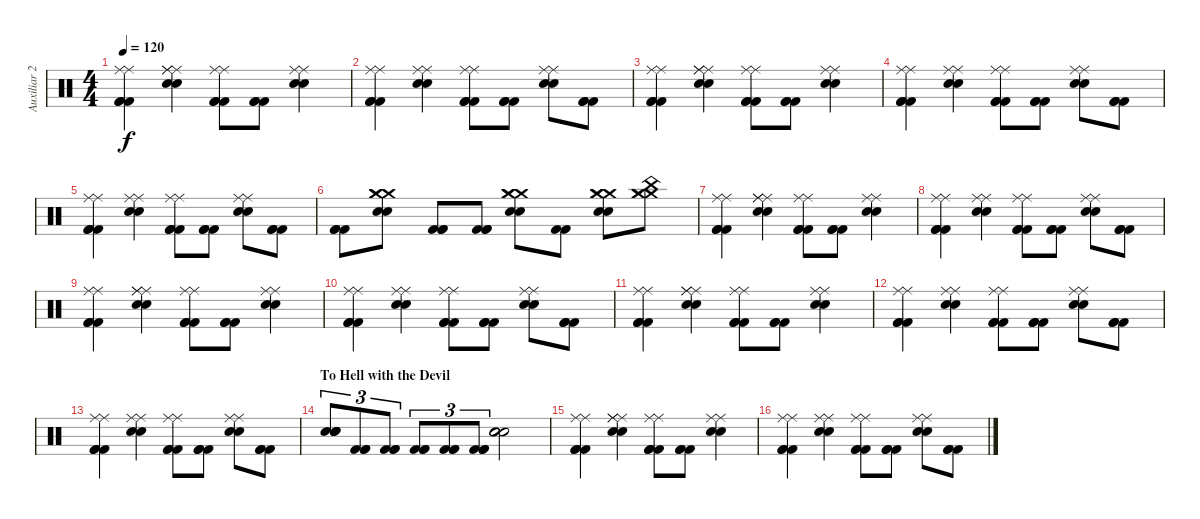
\track ("Auxiliar 2" "Auxiliar 2") {instrument percussion}
\staff {score}
\articulation defaults
\ts (4 4)
\tempo 120
\clef neutral
\ks c
("Kick (hit) 2" "Kick (hit) 2" "Kick (hit) 2" "Ride (middle)" "Ride (middle)").4{dy f} ("Snare (hit) 2" "Snare (hit) 2" "Ride (middle)" "Ride (middle)" "Ride (middle)").4 ("Kick (hit) 2" "Kick (hit) 2" "Kick (hit) 2" "Ride (middle)" "Ride (middle)").8 ("Kick (hit) 2" "Kick (hit) 2" "Kick (hit) 2").8 ("Snare (hit) 2" "Snare (hit) 2" "Ride (middle)" "Ride (middle)").4 |
("Kick (hit) 2" "Kick (hit) 2" "Kick (hit) 2" "Ride (middle)" "Ride (middle)").4 ("Snare (hit) 2" "Snare (hit) 2" "Ride (middle)" "Ride (middle)").4 ("Kick (hit) 2" "Kick (hit) 2" "Kick (hit) 2" "Ride (middle)" "Ride (middle)").8 ("Kick (hit) 2" "Kick (hit) 2" "Kick (hit) 2").8 ("Snare (hit) 2" "Snare (hit) 2" "Ride (middle)" "Ride (middle)").8 ("Kick (hit) 2" "Kick (hit) 2" "Kick (hit) 2").8 |
("Kick (hit) 2" "Kick (hit) 2" "Kick (hit) 2" "Ride (middle)" "Ride (middle)").4 ("Snare (hit) 2" "Snare (hit) 2" "Ride (middle)" "Ride (middle)" "Ride (middle)").4 ("Kick (hit) 2" "Kick (hit) 2" "Kick (hit) 2" "Ride (middle)" "Ride (middle)").8 ("Kick (hit) 2" "Kick (hit) 2" "Kick (hit) 2").8 ("Snare (hit) 2" "Snare (hit) 2" "Ride (middle)" "Ride (middle)").4 |
("Kick (hit) 2" "Kick (hit) 2" "Kick (hit) 2" "Ride (middle)" "Ride (middle)").4 ("Snare (hit) 2" "Snare (hit) 2" "Ride (middle)" "Ride (middle)").4 ("Kick (hit) 2" "Kick (hit) 2" "Kick (hit) 2" "Ride (middle)" "Ride (middle)").8 ("Kick (hit) 2" "Kick (hit) 2" "Kick (hit) 2").8 ("Snare (hit) 2" "Snare (hit) 2" "Ride (middle)" "Ride (middle)").8 ("Kick (hit) 2" "Kick (hit) 2" "Kick (hit) 2").8 |
("Kick (hit) 2" "Kick (hit) 2" "Kick (hit) 2" "Ride (middle)" "Ride (middle)").4 ("Snare (hit) 2" "Snare (hit) 2" "Ride (middle)" "Ride (middle)").4 ("Kick (hit) 2" "Kick (hit) 2" "Kick (hit) 2" "Ride (middle)" "Ride (middle)").8 ("Kick (hit) 2" "Kick (hit) 2" "Kick (hit) 2").8 ("Snare (hit) 2" "Snare (hit) 2" "Ride (middle)" "Ride (middle)").8 ("Kick (hit) 2" "Kick (hit) 2" "Kick (hit) 2").8 |
("Kick (hit) 2" "Kick (hit) 2" "Kick (hit) 2").8 ("Snare (hit) 2" "Snare (hit) 2" "Crash medium (hit)" "Crash medium (hit)" "Crash medium (hit)").8 ("Kick (hit) 2" "Kick (hit) 2" "Kick (hit) 2").8 ("Kick (hit) 2" "Kick (hit) 2" "Kick (hit) 2").8 ("Snare (hit) 2" "Snare (hit) 2" "Crash medium (hit)" "Crash medium (hit)" "Crash medium (hit)").8 ("Kick (hit) 2" "Kick (hit) 2").8 ("Snare (hit) 2" "Snare (hit) 2" "Crash medium (hit)" "Crash medium (hit)" "Crash medium (hit)").8 ("Crash medium (hit)" "Crash medium (hit)" "Crash medium (hit)" "China (hit)").8 |
("Kick (hit) 2" "Kick (hit) 2" "Kick (hit) 2" "Ride (middle)" "Ride (middle)").4 ("Snare (hit) 2" "Snare (hit) 2" "Ride (middle)" "Ride (middle)" "Ride (middle)").4 ("Kick (hit) 2" "Kick (hit) 2" "Kick (hit) 2" "Ride (middle)" "Ride (middle)").8 ("Kick (hit) 2" "Kick (hit) 2" "Kick (hit) 2").8 ("Snare (hit) 2" "Snare (hit) 2" "Ride (middle)" "Ride (middle)").4 |
("Kick (hit) 2" "Kick (hit) 2" "Kick (hit) 2" "Ride (middle)" "Ride (middle)").4 ("Snare (hit) 2" "Snare (hit) 2" "Ride (middle)" "Ride (middle)").4 ("Kick (hit) 2" "Kick (hit) 2" "Kick (hit) 2" "Ride (middle)" "Ride (middle)").8 ("Kick (hit) 2" "Kick (hit) 2" "Kick (hit) 2").8 ("Snare (hit) 2" "Snare (hit) 2" "Ride (middle)" "Ride (middle)").8 ("Kick (hit) 2" "Kick (hit) 2" "Kick (hit) 2").8 |
("Kick (hit) 2" "Kick (hit) 2" "Kick (hit) 2" "Ride (middle)" "Ride (middle)").4 ("Snare (hit) 2" "Snare (hit) 2" "Ride (middle)" "Ride (middle)" "Ride (middle)").4 ("Kick (hit) 2" "Kick (hit) 2" "Kick (hit) 2" "Ride (middle)" "Ride (middle)").8 ("Kick (hit) 2" "Kick (hit) 2" "Kick (hit) 2").8 ("Snare (hit) 2" "Snare (hit) 2" "Ride (middle)" "Ride (middle)").4 |
("Kick (hit) 2" "Kick (hit) 2" "Kick (hit) 2" "Ride (middle)" "Ride (middle)").4 ("Snare (hit) 2" "Snare (hit) 2" "Ride (middle)" "Ride (middle)").4 ("Kick (hit) 2" "Kick (hit) 2" "Kick (hit) 2" "Ride (middle)" "Ride (middle)").8 ("Kick (hit) 2" "Kick (hit) 2" "Kick (hit) 2").8 ("Snare (hit) 2" "Snare (hit) 2" "Ride (middle)" "Ride (middle)").8 ("Kick (hit) 2" "Kick (hit) 2" "Kick (hit) 2").8 |
("Kick (hit) 2" "Kick (hit) 2" "Kick (hit) 2" "Ride (middle)" "Ride (middle)").4 ("Snare (hit) 2" "Snare (hit) 2" "Ride (middle)" "Ride (middle)" "Ride (middle)").4 ("Kick (hit) 2" "Kick (hit) 2" "Kick (hit) 2" "Ride (middle)" "Ride (middle)").8 ("Kick (hit) 2" "Kick (hit) 2" "Kick (hit) 2").8 ("Snare (hit) 2" "Snare (hit) 2" "Ride (middle)" "Ride (middle)").4 |
("Kick (hit) 2" "Kick (hit) 2" "Kick (hit) 2" "Ride (middle)" "Ride (middle)").4 ("Snare (hit) 2" "Snare (hit) 2" "Ride (middle)" "Ride (middle)").4 ("Kick (hit) 2" "Kick (hit) 2" "Kick (hit) 2" "Ride (middle)" "Ride (middle)").8 ("Kick (hit) 2" "Kick (hit) 2" "Kick (hit) 2").8 ("Snare (hit) 2" "Snare (hit) 2" "Ride (middle)" "Ride (middle)").8 ("Kick (hit) 2" "Kick (hit) 2" "Kick (hit) 2").8 |
("Kick (hit) 2" "Kick (hit) 2" "Kick (hit) 2" "Ride (middle)" "Ride (middle)").4 ("Snare (hit) 2" "Snare (hit) 2" "Ride (middle)" "Ride (middle)").4 ("Kick (hit) 2" "Kick (hit) 2" "Kick (hit) 2" "Ride (middle)" "Ride (middle)").8 ("Kick (hit) 2" "Kick (hit) 2" "Kick (hit) 2").8 ("Snare (hit) 2" "Snare (hit) 2" "Ride (middle)" "Ride (middle)").8 ("Kick (hit) 2" "Kick (hit) 2" "Kick (hit) 2").8 |
\section ("" "To Hell with the Devil")
("Snare (hit) 2" "Snare (hit) 2" "Snare (hit) 2" "Snare (hit) 2").8{tu (3 2)} ("Kick (hit) 2" "Kick (hit) 2" "Kick (hit) 2").8{tu (3 2)} ("Kick (hit) 2" "Kick (hit) 2" "Kick (hit) 2").8{tu (3 2)} ("Kick (hit) 2" "Kick (hit) 2" "Kick (hit) 2").8{tu (3 2)} ("Kick (hit) 2" "Kick (hit) 2" "Kick (hit) 2").8{tu (3 2)} ("Kick (hit) 2" "Kick (hit) 2" "Kick (hit) 2").8{tu (3 2)} ("Snare (hit) 2" "Snare (hit) 2" "Snare (hit) 2" "Snare (hit) 2").2 |
("Kick (hit) 2" "Kick (hit) 2" "Kick (hit) 2" "Ride (middle)" "Ride (middle)").4 ("Snare (hit) 2" "Snare (hit) 2" "Ride (middle)" "Ride (middle)" "Ride (middle)").4 ("Kick (hit) 2" "Kick (hit) 2" "Kick (hit) 2" "Ride (middle)" "Ride (middle)").8 ("Kick (hit) 2" "Kick (hit) 2" "Kick (hit) 2").8 ("Snare (hit) 2" "Snare (hit) 2" "Ride (middle)" "Ride (middle)").4 |
("Kick (hit) 2" "Kick (hit) 2" "Kick (hit) 2" "Ride (middle)" "Ride (middle)").4 ("Snare (hit) 2" "Snare (hit) 2" "Ride (middle)" "Ride (middle)").4 ("Kick (hit) 2" "Kick (hit) 2" "Kick (hit) 2" "Ride (middle)" "Ride (middle)").8 ("Kick (hit) 2" "Kick (hit) 2" "Kick (hit) 2").8 ("Snare (hit) 2" "Snare (hit) 2" "Ride (middle)" "Ride (middle)").8 ("Kick (hit) 2" "Kick (hit) 2" "Kick (hit) 2").8
